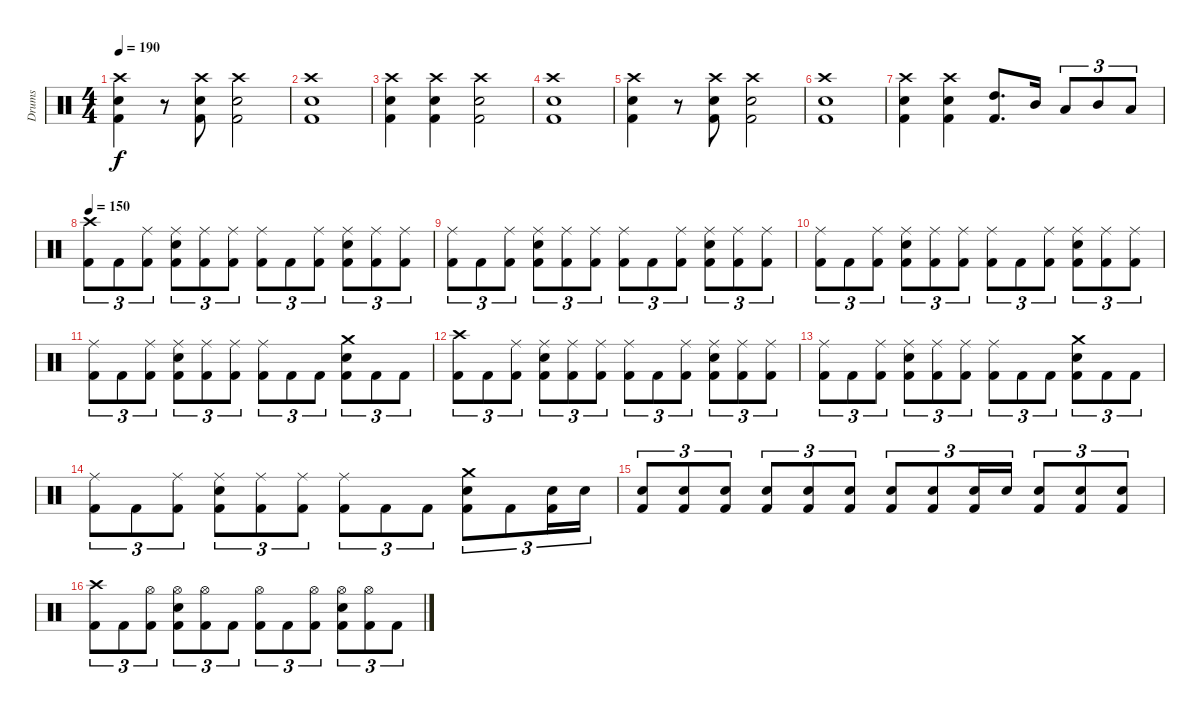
\track ("Drums" "Drums") {instrument percussion}
\staff {score}
\articulation defaults
\ts (4 4)
\tempo 190
\clef neutral
\ks c
("Crash high (hit)" "Electric Snare (hit)" "Kick (hit) 2").4{dy f} r.8 ("Crash high (hit)" "Electric Snare (hit)" "Kick (hit) 2").8 ("Crash high (hit)" "Electric Snare (hit)" "Kick (hit) 2").2 |
("Crash high (hit)" "Electric Snare (hit)" "Kick (hit) 2").1 |
("Crash high (hit)" "Electric Snare (hit)" "Kick (hit) 2").4 ("Crash high (hit)" "Electric Snare (hit)" "Kick (hit) 2").4 ("Crash high (hit)" "Electric Snare (hit)" "Kick (hit) 2").2 |
("Crash high (hit)" "Electric Snare (hit)" "Kick (hit) 2").1 |
("Crash high (hit)" "Electric Snare (hit)" "Kick (hit) 2").4 r.8 ("Crash high (hit)" "Electric Snare (hit)" "Kick (hit) 2").8 ("Crash high (hit)" "Electric Snare (hit)" "Kick (hit) 2").2 |
("Crash high (hit)" "Electric Snare (hit)" "Kick (hit) 2").1 |
("Crash high (hit)" "Electric Snare (hit)" "Kick (hit) 2").4 ("Crash high (hit)" "Electric Snare (hit)" "Kick (hit) 2").4 ("High Tom (hit)" "Kick (hit) 2").8{d} "Mid Tom (hit)".16 "Low Tom (hit)".8{tu (3 2)} "Mid Tom (hit)".8{tu (3 2)} "Low Tom (hit)".8{tu (3 2)} |
\tempo 150
("Crash high (hit)" "Kick (hit) 2").8{tu (3 2)} "Kick (hit) 2".8{tu (3 2)} ("Ride (middle)" "Kick (hit) 2").8{tu (3 2)} ("Ride (middle)" "Electric Snare (hit)" "Kick (hit) 2").8{tu (3 2)} ("Ride (middle)" "Kick (hit) 2").8{tu (3 2)} ("Ride (middle)" "Kick (hit) 2").8{tu (3 2)} ("Ride (middle)" "Kick (hit) 2").8{tu (3 2)} "Kick (hit) 2".8{tu (3 2)} ("Ride (middle)" "Kick (hit) 2").8{tu (3 2)} ("Ride (middle)" "Electric Snare (hit)" "Kick (hit) 2").8{tu (3 2)} ("Ride (middle)" "Kick (hit) 2").8{tu (3 2)} ("Ride (middle)" "Kick (hit) 2").8{tu (3 2)} |
("Ride (middle)" "Kick (hit) 2").8{tu (3 2)} "Kick (hit) 2".8{tu (3 2)} ("Ride (middle)" "Kick (hit) 2").8{tu (3 2)} ("Ride (middle)" "Electric Snare (hit)" "Kick (hit) 2").8{tu (3 2)} ("Ride (middle)" "Kick (hit) 2").8{tu (3 2)} ("Ride (middle)" "Kick (hit) 2").8{tu (3 2)} ("Ride (middle)" "Kick (hit) 2").8{tu (3 2)} "Kick (hit) 2".8{tu (3 2)} ("Ride (middle)" "Kick (hit) 2").8{tu (3 2)} ("Ride (middle)" "Electric Snare (hit)" "Kick (hit) 2").8{tu (3 2)} ("Ride (middle)" "Kick (hit) 2").8{tu (3 2)} ("Ride (middle)" "Kick (hit) 2").8{tu (3 2)} |
("Ride (middle)" "Kick (hit) 2").8{tu (3 2)} "Kick (hit) 2".8{tu (3 2)} ("Ride (middle)" "Kick (hit) 2").8{tu (3 2)} ("Ride (middle)" "Electric Snare (hit)" "Kick (hit) 2").8{tu (3 2)} ("Ride (middle)" "Kick (hit) 2").8{tu (3 2)} ("Ride (middle)" "Kick (hit) 2").8{tu (3 2)} ("Ride (middle)" "Kick (hit) 2").8{tu (3 2)} "Kick (hit) 2".8{tu (3 2)} ("Ride (middle)" "Kick (hit) 2").8{tu (3 2)} ("Ride (middle)" "Electric Snare (hit)" "Kick (hit) 2").8{tu (3 2)} ("Ride (middle)" "Kick (hit) 2").8{tu (3 2)} ("Ride (middle)" "Kick (hit) 2").8{tu (3 2)} |
("Ride (middle)" "Kick (hit) 2").8{tu (3 2)} "Kick (hit) 2".8{tu (3 2)} ("Ride (middle)" "Kick (hit) 2").8{tu (3 2)} ("Ride (middle)" "Electric Snare (hit)" "Kick (hit) 2").8{tu (3 2)} ("Ride (middle)" "Kick (hit) 2").8{tu (3 2)} ("Ride (middle)" "Kick (hit) 2").8{tu (3 2)} ("Ride (middle)" "Kick (hit) 2").8{tu (3 2)} "Kick (hit) 2".8{tu (3 2)} "Kick (hit) 2".8{tu (3 2)} ("Crash medium (hit)" "Electric Snare (hit)" "Kick (hit) 2").8{tu (3 2)} "Kick (hit) 2".8{tu (3 2)} "Kick (hit) 2".8{tu (3 2)} |
("Crash high (hit)" "Kick (hit) 2").8{tu (3 2)} "Kick (hit) 2".8{tu (3 2)} ("Ride (middle)" "Kick (hit) 2").8{tu (3 2)} ("Ride (middle)" "Electric Snare (hit)" "Kick (hit) 2").8{tu (3 2)} ("Ride (middle)" "Kick (hit) 2").8{tu (3 2)} ("Ride (middle)" "Kick (hit) 2").8{tu (3 2)} ("Ride (middle)" "Kick (hit) 2").8{tu (3 2)} "Kick (hit) 2".8{tu (3 2)} ("Ride (middle)" "Kick (hit) 2").8{tu (3 2)} ("Ride (middle)" "Electric Snare (hit)" "Kick (hit) 2").8{tu (3 2)} ("Ride (middle)" "Kick (hit) 2").8{tu (3 2)} ("Ride (middle)" "Kick (hit) 2").8{tu (3 2)} |
("Ride (middle)" "Kick (hit) 2").8{tu (3 2)} "Kick (hit) 2".8{tu (3 2)} ("Ride (middle)" "Kick (hit) 2").8{tu (3 2)} ("Ride (middle)" "Electric Snare (hit)" "Kick (hit) 2").8{tu (3 2)} ("Ride (middle)" "Kick (hit) 2").8{tu (3 2)} ("Ride (middle)" "Kick (hit) 2").8{tu (3 2)} ("Ride (middle)" "Kick (hit) 2").8{tu (3 2)} "Kick (hit) 2".8{tu (3 2)} "Kick (hit) 2".8{tu (3 2)} ("Crash medium (hit)" "Electric Snare (hit)" "Kick (hit) 2").8{tu (3 2)} "Kick (hit) 2".8{tu (3 2)} "Kick (hit) 2".8{tu (3 2)} |
("Ride (middle)" "Kick (hit) 2").8{tu (3 2)} "Kick (hit) 2".8{tu (3 2)} ("Ride (middle)" "Kick (hit) 2").8{tu (3 2)} ("Ride (middle)" "Electric Snare (hit)" "Kick (hit) 2").8{tu (3 2)} ("Ride (middle)" "Kick (hit) 2").8{tu (3 2)} ("Ride (middle)" "Kick (hit) 2").8{tu (3 2)} ("Ride (middle)" "Kick (hit) 2").8{tu (3 2)} "Kick (hit) 2".8{tu (3 2)} "Kick (hit) 2".8{tu (3 2)} ("Crash medium (hit)" "Electric Snare (hit)" "Kick (hit) 2").8{tu (3 2)} "Kick (hit) 2".8{tu (3 2)} ("Electric Snare (hit)" "Kick (hit) 2").16{tu (3 2)} "Electric Snare (hit)".16{tu (3 2)} |
("Electric Snare (hit)" "Kick (hit) 2").8{tu (3 2)} ("Electric Snare (hit)" "Kick (hit) 2").8{tu (3 2)} ("Electric Snare (hit)" "Kick (hit) 2").8{tu (3 2)} ("Electric Snare (hit)" "Kick (hit) 2").8{tu (3 2)} ("Electric Snare (hit)" "Kick (hit) 2").8{tu (3 2)} ("Electric Snare (hit)" "Kick (hit) 2").8{tu (3 2)} ("Electric Snare (hit)" "Kick (hit) 2").8{tu (3 2)} ("Electric Snare (hit)" "Kick (hit) 2").8{tu (3 2)} ("Electric Snare (hit)" "Kick (hit) 2").16{tu (3 2)} "Electric Snare (hit)".16{tu (3 2)} ("Electric Snare (hit)" "Kick (hit) 2").8{tu (3 2)} ("Electric Snare (hit)" "Kick (hit) 2").8{tu (3 2)} ("Electric Snare (hit)" "Kick (hit) 2").8{tu (3 2)} |
("Crash high (hit)" "Kick (hit) 2").8{tu (3 2)} "Kick (hit) 2".8{tu (3 2)} ("Hi-Hat (open)" "Kick (hit) 2").8{tu (3 2)} ("Hi-Hat (open)" "Electric Snare (hit)" "Kick (hit) 2").8{tu (3 2)} ("Hi-Hat (open)" "Kick (hit) 2").8{tu (3 2)} "Kick (hit) 2".8{tu (3 2)} ("Hi-Hat (open)" "Kick (hit) 2").8{tu (3 2)} "Kick (hit) 2".8{tu (3 2)} ("Hi-Hat (open)" "Kick (hit) 2").8{tu (3 2)} ("Hi-Hat (open)" "Electric Snare (hit)" "Kick (hit) 2").8{tu (3 2)} ("Hi-Hat (open)" "Kick (hit) 2").8{tu (3 2)} "Kick (hit) 2".8{tu (3 2)}
